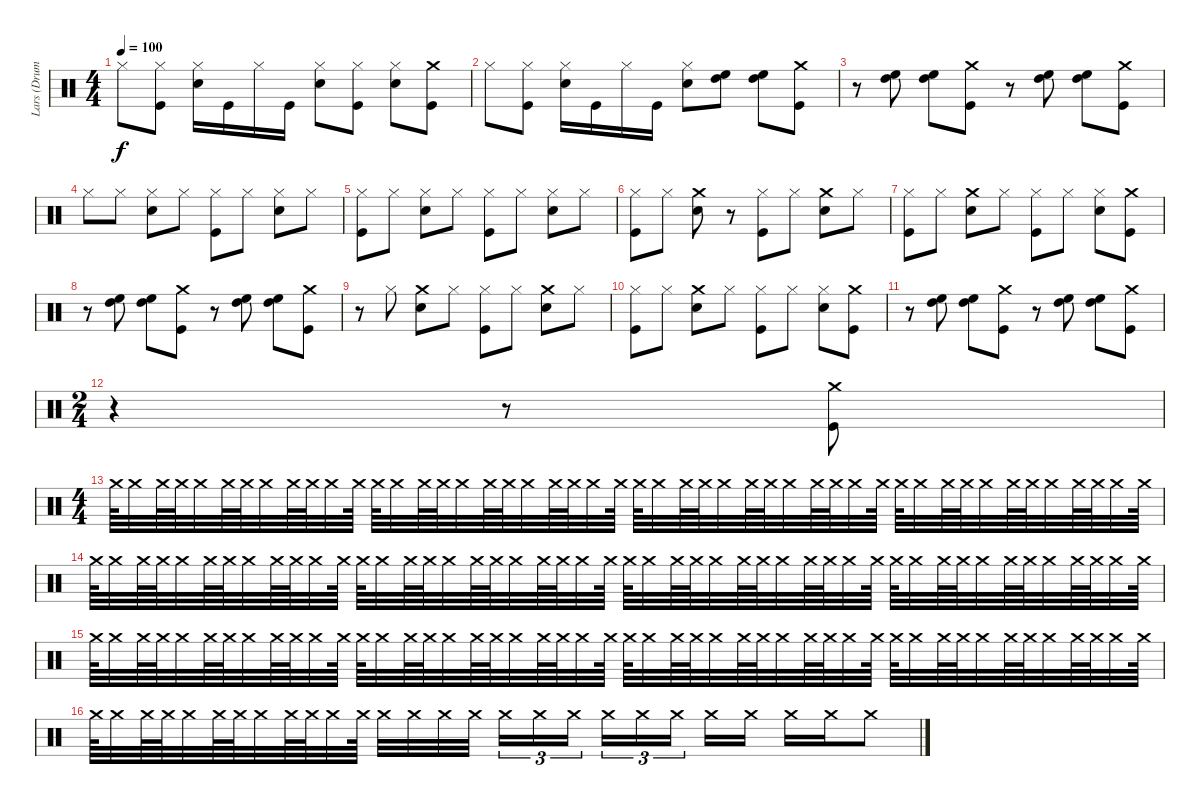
\track ("Lars (Drums)" "Lars (Drum") {instrument percussion}
\staff {score}
\articulation defaults
\ts (4 4)
\tempo 100
\clef neutral
\ks c "Hi-Hat (closed)".8{dy f}
("Kick (hit)" "Hi-Hat (closed)").8 ("Hi-Hat (closed)" "Snare (hit) 2").16 "Kick (hit)".16 "Hi-Hat (closed)".16 "Kick (hit)".16 ("Hi-Hat (closed)" "Snare (hit) 2").8 ("Hi-Hat (closed)" "Kick (hit)").8 ("Hi-Hat (closed)" "Snare (hit) 2").8 ("Crash medium (hit)" "Kick (hit)").8 |
"Hi-Hat (closed)".8 ("Kick (hit)" "Hi-Hat (closed)").8 ("Hi-Hat (closed)" "Snare (hit) 2").16 "Kick (hit)".16 "Hi-Hat (closed)".16 "Kick (hit)".16 ("Snare (hit) 2" "Hi-Hat (closed)").8 ("High Tom (hit)" "High Floor Tom (hit)").8 ("High Tom (hit)" "High Floor Tom (hit)").8 ("Crash medium (hit)" "Kick (hit)").8 |
r.8 ("High Tom (hit)" "High Floor Tom (hit)").8 ("High Tom (hit)" "High Floor Tom (hit)").8 ("Crash medium (hit)" "Kick (hit)").8 r.8 ("High Tom (hit)" "High Floor Tom (hit)").8 ("High Tom (hit)" "High Floor Tom (hit)").8 ("Crash medium (hit)" "Kick (hit)").8 |
"Hi-Hat (closed)".8 "Hi-Hat (closed)".8 ("Snare (hit) 2" "Hi-Hat (closed)").8 "Hi-Hat (closed)".8 ("Hi-Hat (closed)" "Kick (hit)").8 "Hi-Hat (closed)".8 ("Snare (hit) 2" "Hi-Hat (closed)").8 "Hi-Hat (closed)".8 |
("Hi-Hat (closed)" "Kick (hit)").8 "Hi-Hat (closed)".8 ("Snare (hit) 2" "Hi-Hat (closed)").8 "Hi-Hat (closed)".8 ("Kick (hit)" "Hi-Hat (closed)").8 "Hi-Hat (closed)".8 ("Snare (hit) 2" "Hi-Hat (closed)").8 "Hi-Hat (closed)".8 |
("Hi-Hat (closed)" "Kick (hit)").8 "Hi-Hat (closed)".8 ("Crash medium (hit)" "Snare (hit) 2").8 r.8 ("Hi-Hat (closed)" "Kick (hit)").8 "Hi-Hat (closed)".8 ("Crash medium (hit)" "Snare (hit) 2").8 "Hi-Hat (closed)".8 |
("Hi-Hat (closed)" "Kick (hit)").8 "Hi-Hat (closed)".8 ("Crash medium (hit)" "Snare (hit) 2").8 "Hi-Hat (closed)".8 ("Hi-Hat (closed)" "Kick (hit)").8 "Hi-Hat (closed)".8 ("Hi-Hat (closed)" "Snare (hit) 2").8 ("Kick (hit)" "Crash medium (hit)").8 |
r.8 ("High Tom (hit)" "High Floor Tom (hit)").8 ("High Tom (hit)" "High Floor Tom (hit)").8 ("Crash medium (hit)" "Kick (hit)").8 r.8 ("High Tom (hit)" "High Floor Tom (hit)").8 ("High Tom (hit)" "High Floor Tom (hit)").8 ("Crash medium (hit)" "Kick (hit)").8 |
r.8 "Hi-Hat (closed)".8 ("Crash medium (hit)" "Snare (hit) 2").8 "Hi-Hat (closed)".8 ("Kick (hit)" "Hi-Hat (closed)").8 "Hi-Hat (closed)".8 ("Crash medium (hit)" "Snare (hit) 2").8 "Hi-Hat (closed)".8 |
("Hi-Hat (closed)" "Kick (hit)").8 "Hi-Hat (closed)".8 ("Crash medium (hit)" "Snare (hit) 2").8 "Hi-Hat (closed)".8 ("Kick (hit)" "Hi-Hat (closed)").8 "Hi-Hat (closed)".8 ("Hi-Hat (closed)" "Snare (hit) 2").8 ("Kick (hit)" "Crash medium (hit)").8 |
r.8 ("High Tom (hit)" "High Floor Tom (hit)").8 ("High Tom (hit)" "High Floor Tom (hit)").8 ("Crash medium (hit)" "Kick (hit)").8 r.8 ("High Tom (hit)" "High Floor Tom (hit)").8 ("High Tom (hit)" "High Floor Tom (hit)").8 ("Crash medium (hit)" "Kick (hit)").8 |
\ts (2 4)
r.4 r.8 ("Crash medium (hit)" "Kick (hit)").8 |
\ts (4 4)
"Crash medium (hit)".64 "Crash medium (hit)".32 "Crash medium (hit)".64 "Crash medium (hit)".64 "Crash medium (hit)".32 "Crash medium (hit)".64 "Crash medium (hit)".64 "Crash medium (hit)".32 "Crash medium (hit)".64 "Crash medium (hit)".64 "Crash medium (hit)".32 "Crash medium (hit)".64 "Crash medium (hit)".64 "Crash medium (hit)".32 "Crash medium (hit)".64 "Crash medium (hit)".64 "Crash medium (hit)".32 "Crash medium (hit)".64 "Crash medium (hit)".64 "Crash medium (hit)".32 "Crash medium (hit)".64 "Crash medium (hit)".64 "Crash medium (hit)".32 "Crash medium (hit)".64 "Crash medium (hit)".64 "Crash medium (hit)".32 "Crash medium (hit)".64 "Crash medium (hit)".64 "Crash medium (hit)".32 "Crash medium (hit)".64 "Crash medium (hit)".64 "Crash medium (hit)".32 "Crash medium (hit)".64 "Crash medium (hit)".64 "Crash medium (hit)".32 "Crash medium (hit)".64 "Crash medium (hit)".64 "Crash medium (hit)".32 "Crash medium (hit)".64 "Crash medium (hit)".64 "Crash medium (hit)".32 "Crash medium (hit)".64 "Crash medium (hit)".64 "Crash medium (hit)".32 "Crash medium (hit)".64 "Crash medium (hit)".64 "Crash medium (hit)".32 "Crash medium (hit)".64 |
"Crash medium (hit)".64 "Crash medium (hit)".32 "Crash medium (hit)".64 "Crash medium (hit)".64 "Crash medium (hit)".32 "Crash medium (hit)".64 "Crash medium (hit)".64 "Crash medium (hit)".32 "Crash medium (hit)".64 "Crash medium (hit)".64 "Crash medium (hit)".32 "Crash medium (hit)".64 "Crash medium (hit)".64 "Crash medium (hit)".32 "Crash medium (hit)".64 "Crash medium (hit)".64 "Crash medium (hit)".32 "Crash medium (hit)".64 "Crash medium (hit)".64 "Crash medium (hit)".32 "Crash medium (hit)".64 "Crash medium (hit)".64 "Crash medium (hit)".32 "Crash medium (hit)".64 "Crash medium (hit)".64 "Crash medium (hit)".32 "Crash medium (hit)".64 "Crash medium (hit)".64 "Crash medium (hit)".32 "Crash medium (hit)".64 "Crash medium (hit)".64 "Crash medium (hit)".32 "Crash medium (hit)".64 "Crash medium (hit)".64 "Crash medium (hit)".32 "Crash medium (hit)".64 "Crash medium (hit)".64 "Crash medium (hit)".32 "Crash medium (hit)".64 "Crash medium (hit)".64 "Crash medium (hit)".32 "Crash medium (hit)".64 "Crash medium (hit)".64 "Crash medium (hit)".32 "Crash medium (hit)".64 "Crash medium (hit)".64 "Crash medium (hit)".32 "Crash medium (hit)".64 |
"Crash medium (hit)".64 "Crash medium (hit)".32 "Crash medium (hit)".64 "Crash medium (hit)".64 "Crash medium (hit)".32 "Crash medium (hit)".64 "Crash medium (hit)".64 "Crash medium (hit)".32 "Crash medium (hit)".64 "Crash medium (hit)".64 "Crash medium (hit)".32 "Crash medium (hit)".64 "Crash medium (hit)".64 "Crash medium (hit)".32 "Crash medium (hit)".64 "Crash medium (hit)".64 "Crash medium (hit)".32 "Crash medium (hit)".64 "Crash medium (hit)".64 "Crash medium (hit)".32 "Crash medium (hit)".64 "Crash medium (hit)".64 "Crash medium (hit)".32 "Crash medium (hit)".64 "Crash medium (hit)".64 "Crash medium (hit)".32 "Crash medium (hit)".64 "Crash medium (hit)".64 "Crash medium (hit)".32 "Crash medium (hit)".64 "Crash medium (hit)".64 "Crash medium (hit)".32 "Crash medium (hit)".64 "Crash medium (hit)".64 "Crash medium (hit)".32 "Crash medium (hit)".64 "Crash medium (hit)".64 "Crash medium (hit)".32 "Crash medium (hit)".64 "Crash medium (hit)".64 "Crash medium (hit)".32 "Crash medium (hit)".64 "Crash medium (hit)".64 "Crash medium (hit)".32 "Crash medium (hit)".64 "Crash medium (hit)".64 "Crash medium (hit)".32 "Crash medium (hit)".64 |
"Crash medium (hit)".64 "Crash medium (hit)".32 "Crash medium (hit)".64 "Crash medium (hit)".64 "Crash medium (hit)".32 "Crash medium (hit)".64 "Crash medium (hit)".64 "Crash medium (hit)".32 "Crash medium (hit)".64 "Crash medium (hit)".64 "Crash medium (hit)".32 "Crash medium (hit)".64 "Crash medium (hit)".32 "Crash medium (hit)".32 "Crash medium (hit)".32 "Crash medium (hit)".32 "Crash medium (hit)".16{tu (3 2)} "Crash medium (hit)".16{tu (3 2)} "Crash medium (hit)".16{tu (3 2)} "Crash medium (hit)".16{tu (3 2)} "Crash medium (hit)".16{tu (3 2)} "Crash medium (hit)".16{tu (3 2)} "Crash medium (hit)".16 "Crash medium (hit)".16 "Crash medium (hit)".16 "Crash medium (hit)".16 "Crash medium (hit)".8
